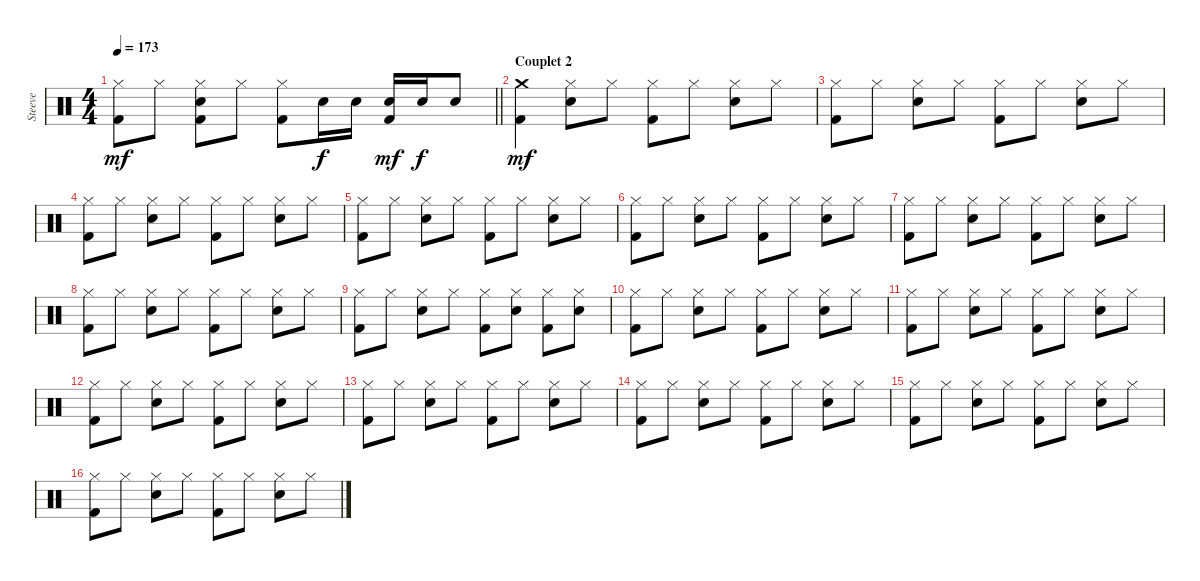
\track ("Steeve" "Steeve") {instrument percussion}
\staff {score}
\articulation defaults
\ts (4 4)
\tempo 173
\clef neutral
\barLineRight lightlight
\ks c
("Hi-Hat (closed)" "Kick (hit) 2").8{dy mf} "Hi-Hat (closed)".8 ("Hi-Hat (closed)" "Electric Snare (hit)" "Kick (hit) 2").8 "Hi-Hat (closed)".8 ("Hi-Hat (closed)" "Kick (hit) 2").8 "Electric Snare (hit)".16{dy f} "Electric Snare (hit)".16 ("Electric Snare (hit)" "Kick (hit) 2").16{dy mf} "Electric Snare (hit)".16{dy f} "Electric Snare (hit)".8 |
\section ("" "Couplet 2")
("Crash medium (hit)" "Kick (hit) 2").4{dy mf} ("Hi-Hat (closed)" "Electric Snare (hit)").8 "Hi-Hat (closed)".8 ("Hi-Hat (closed)" "Kick (hit) 2").8 "Hi-Hat (closed)".8 ("Hi-Hat (closed)" "Electric Snare (hit)").8 "Hi-Hat (closed)".8 |
("Hi-Hat (closed)" "Kick (hit) 2").8 "Hi-Hat (closed)".8 ("Hi-Hat (closed)" "Electric Snare (hit)").8 "Hi-Hat (closed)".8 ("Hi-Hat (closed)" "Kick (hit) 2").8 "Hi-Hat (closed)".8 ("Hi-Hat (closed)" "Electric Snare (hit)").8 "Hi-Hat (closed)".8 |
("Hi-Hat (closed)" "Kick (hit) 2").8 "Hi-Hat (closed)".8 ("Hi-Hat (closed)" "Electric Snare (hit)").8 "Hi-Hat (closed)".8 ("Hi-Hat (closed)" "Kick (hit) 2").8 "Hi-Hat (closed)".8 ("Hi-Hat (closed)" "Electric Snare (hit)").8 "Hi-Hat (closed)".8 |
("Hi-Hat (closed)" "Kick (hit) 2").8 "Hi-Hat (closed)".8 ("Hi-Hat (closed)" "Electric Snare (hit)").8 "Hi-Hat (closed)".8 ("Hi-Hat (closed)" "Kick (hit) 2").8 "Hi-Hat (closed)".8 ("Hi-Hat (closed)" "Electric Snare (hit)").8 "Hi-Hat (closed)".8 |
("Hi-Hat (closed)" "Kick (hit) 2").8 "Hi-Hat (closed)".8 ("Hi-Hat (closed)" "Electric Snare (hit)").8 "Hi-Hat (closed)".8 ("Hi-Hat (closed)" "Kick (hit) 2").8 "Hi-Hat (closed)".8 ("Hi-Hat (closed)" "Electric Snare (hit)").8 "Hi-Hat (closed)".8 |
("Hi-Hat (closed)" "Kick (hit) 2").8 "Hi-Hat (closed)".8 ("Hi-Hat (closed)" "Electric Snare (hit)").8 "Hi-Hat (closed)".8 ("Hi-Hat (closed)" "Kick (hit) 2").8 "Hi-Hat (closed)".8 ("Hi-Hat (closed)" "Electric Snare (hit)").8 "Hi-Hat (closed)".8 |
("Hi-Hat (closed)" "Kick (hit) 2").8 "Hi-Hat (closed)".8 ("Hi-Hat (closed)" "Electric Snare (hit)").8 "Hi-Hat (closed)".8 ("Hi-Hat (closed)" "Kick (hit) 2").8 "Hi-Hat (closed)".8 ("Hi-Hat (closed)" "Electric Snare (hit)").8 "Hi-Hat (closed)".8 |
("Hi-Hat (closed)" "Kick (hit) 2").8 "Hi-Hat (closed)".8 ("Hi-Hat (closed)" "Electric Snare (hit)").8 "Hi-Hat (closed)".8 ("Hi-Hat (closed)" "Kick (hit) 2").8 ("Hi-Hat (closed)" "Electric Snare (hit)").8 ("Hi-Hat (closed)" "Kick (hit) 2").8 ("Hi-Hat (closed)" "Electric Snare (hit)").8 |
("Hi-Hat (closed)" "Kick (hit) 2").8 "Hi-Hat (closed)".8 ("Hi-Hat (closed)" "Electric Snare (hit)").8 "Hi-Hat (closed)".8 ("Hi-Hat (closed)" "Kick (hit) 2").8 "Hi-Hat (closed)".8 ("Hi-Hat (closed)" "Electric Snare (hit)").8 "Hi-Hat (closed)".8 |
("Hi-Hat (closed)" "Kick (hit) 2").8 "Hi-Hat (closed)".8 ("Hi-Hat (closed)" "Electric Snare (hit)").8 "Hi-Hat (closed)".8 ("Hi-Hat (closed)" "Kick (hit) 2").8 "Hi-Hat (closed)".8 ("Hi-Hat (closed)" "Electric Snare (hit)").8 "Hi-Hat (closed)".8 |
("Hi-Hat (closed)" "Kick (hit) 2").8 "Hi-Hat (closed)".8 ("Hi-Hat (closed)" "Electric Snare (hit)").8 "Hi-Hat (closed)".8 ("Hi-Hat (closed)" "Kick (hit) 2").8 "Hi-Hat (closed)".8 ("Hi-Hat (closed)" "Electric Snare (hit)").8 "Hi-Hat (closed)".8 |
("Hi-Hat (closed)" "Kick (hit) 2").8 "Hi-Hat (closed)".8 ("Hi-Hat (closed)" "Electric Snare (hit)").8 "Hi-Hat (closed)".8 ("Hi-Hat (closed)" "Kick (hit) 2").8 "Hi-Hat (closed)".8 ("Hi-Hat (closed)" "Electric Snare (hit)").8 "Hi-Hat (closed)".8 |
("Hi-Hat (closed)" "Kick (hit) 2").8 "Hi-Hat (closed)".8 ("Hi-Hat (closed)" "Electric Snare (hit)").8 "Hi-Hat (closed)".8 ("Hi-Hat (closed)" "Kick (hit) 2").8 "Hi-Hat (closed)".8 ("Hi-Hat (closed)" "Electric Snare (hit)").8 "Hi-Hat (closed)".8 |
("Hi-Hat (closed)" "Kick (hit) 2").8 "Hi-Hat (closed)".8 ("Hi-Hat (closed)" "Electric Snare (hit)").8 "Hi-Hat (closed)".8 ("Hi-Hat (closed)" "Kick (hit) 2").8 "Hi-Hat (closed)".8 ("Hi-Hat (closed)" "Electric Snare (hit)").8 "Hi-Hat (closed)".8 |
("Hi-Hat (closed)" "Kick (hit) 2").8 "Hi-Hat (closed)".8 ("Hi-Hat (closed)" "Electric Snare (hit)").8 "Hi-Hat (closed)".8 ("Hi-Hat (closed)" "Kick (hit) 2").8 "Hi-Hat (closed)".8 ("Hi-Hat (closed)" "Electric Snare (hit)").8 "Hi-Hat (closed)".8
